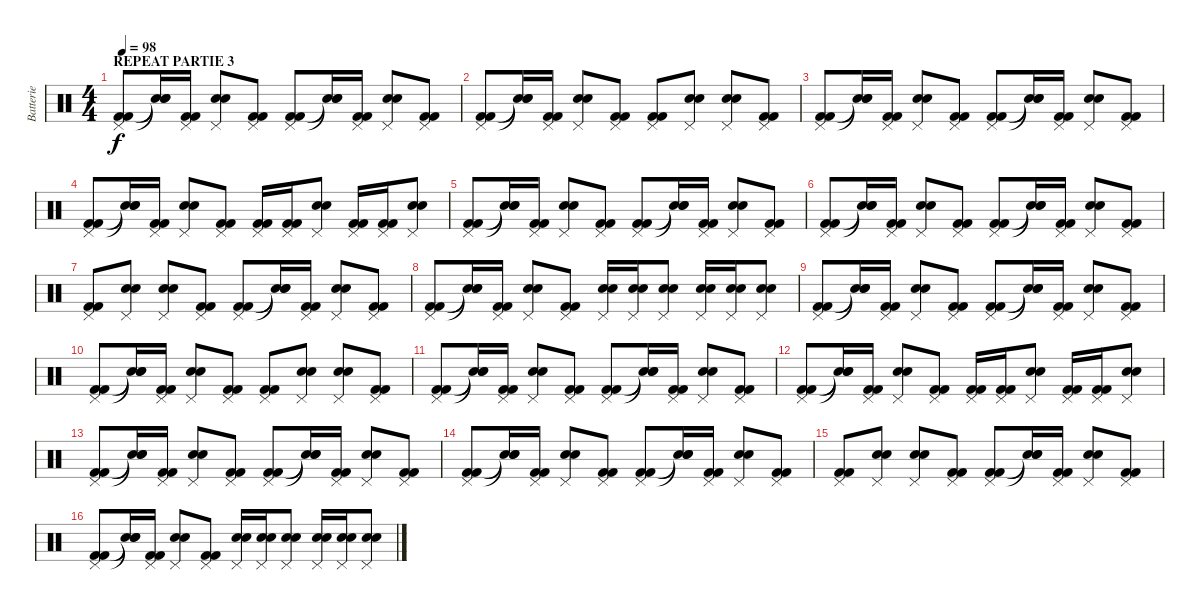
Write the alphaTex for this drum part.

\track ("Batterie" "Batterie") {instrument percussion}
\staff {score}
\articulation defaults
\ts (4 4)
\section ("" "REPEAT PARTIE 3")
\tempo 98
\clef neutral
\ks c
("Pedal Hi-Hat (hit)" "Kick (hit) 2" "Kick (hit) 2").8{dy f} ("Snare (hit)"{t} "Snare (hit)"{t} "Snare (hit)"{t}).16 ("Pedal Hi-Hat (hit)" "Kick (hit) 2" "Kick (hit) 2").16 ("Pedal Hi-Hat (hit)" "Electric Snare (hit)" "Electric Snare (hit)").8 ("Pedal Hi-Hat (hit)" "Kick (hit) 2" "Kick (hit) 2").8 ("Pedal Hi-Hat (hit)" "Kick (hit) 2" "Kick (hit) 2").8 ("Snare (hit)"{t} "Snare (hit)"{t} "Snare (hit)"{t}).16 ("Pedal Hi-Hat (hit)" "Kick (hit) 2" "Kick (hit) 2").16 ("Pedal Hi-Hat (hit)" "Electric Snare (hit)" "Electric Snare (hit)").8 ("Pedal Hi-Hat (hit)" "Kick (hit) 2" "Kick (hit) 2").8 |
("Pedal Hi-Hat (hit)" "Kick (hit) 2" "Kick (hit) 2").8 ("Snare (hit)"{t} "Snare (hit)"{t} "Snare (hit)"{t}).16 ("Pedal Hi-Hat (hit)" "Kick (hit) 2" "Kick (hit) 2").16 ("Pedal Hi-Hat (hit)" "Electric Snare (hit)" "Electric Snare (hit)").8 ("Pedal Hi-Hat (hit)" "Kick (hit) 2" "Kick (hit) 2").8 ("Pedal Hi-Hat (hit)" "Kick (hit) 2" "Kick (hit) 2").8 ("Pedal Hi-Hat (hit)" "Electric Snare (hit)" "Electric Snare (hit)").8 ("Pedal Hi-Hat (hit)" "Electric Snare (hit)" "Electric Snare (hit)").8 ("Pedal Hi-Hat (hit)" "Kick (hit) 2" "Kick (hit) 2").8 |
("Pedal Hi-Hat (hit)" "Kick (hit) 2" "Kick (hit) 2").8 ("Snare (hit)"{t} "Snare (hit)"{t} "Snare (hit)"{t}).16 ("Pedal Hi-Hat (hit)" "Kick (hit) 2" "Kick (hit) 2").16 ("Pedal Hi-Hat (hit)" "Electric Snare (hit)" "Electric Snare (hit)").8 ("Pedal Hi-Hat (hit)" "Kick (hit) 2" "Kick (hit) 2").8 ("Pedal Hi-Hat (hit)" "Kick (hit) 2" "Kick (hit) 2").8 ("Snare (hit)"{t} "Snare (hit)"{t} "Snare (hit)"{t}).16 ("Pedal Hi-Hat (hit)" "Kick (hit) 2" "Kick (hit) 2").16 ("Pedal Hi-Hat (hit)" "Electric Snare (hit)" "Electric Snare (hit)").8 ("Pedal Hi-Hat (hit)" "Kick (hit) 2" "Kick (hit) 2").8 |
("Pedal Hi-Hat (hit)" "Kick (hit) 2" "Kick (hit) 2").8 ("Snare (hit)"{t} "Snare (hit)"{t} "Snare (hit)"{t}).16 ("Pedal Hi-Hat (hit)" "Kick (hit) 2" "Kick (hit) 2").16 ("Pedal Hi-Hat (hit)" "Electric Snare (hit)" "Electric Snare (hit)").8 ("Pedal Hi-Hat (hit)" "Kick (hit) 2" "Kick (hit) 2").8 ("Pedal Hi-Hat (hit)" "Kick (hit) 2" "Kick (hit) 2").16 ("Pedal Hi-Hat (hit)" "Kick (hit) 2" "Kick (hit) 2").16 ("Pedal Hi-Hat (hit)" "Electric Snare (hit)" "Electric Snare (hit)").8 ("Pedal Hi-Hat (hit)" "Kick (hit) 2" "Kick (hit) 2").16 ("Pedal Hi-Hat (hit)" "Kick (hit) 2" "Kick (hit) 2").16 ("Pedal Hi-Hat (hit)" "Electric Snare (hit)" "Electric Snare (hit)").8 |
("Pedal Hi-Hat (hit)" "Kick (hit) 2" "Kick (hit) 2").8 ("Snare (hit)"{t} "Snare (hit)"{t} "Snare (hit)"{t}).16 ("Pedal Hi-Hat (hit)" "Kick (hit) 2" "Kick (hit) 2").16 ("Pedal Hi-Hat (hit)" "Electric Snare (hit)" "Electric Snare (hit)").8 ("Pedal Hi-Hat (hit)" "Kick (hit) 2" "Kick (hit) 2").8 ("Pedal Hi-Hat (hit)" "Kick (hit) 2" "Kick (hit) 2").8 ("Snare (hit)"{t} "Snare (hit)"{t} "Snare (hit)"{t}).16 ("Pedal Hi-Hat (hit)" "Kick (hit) 2" "Kick (hit) 2").16 ("Pedal Hi-Hat (hit)" "Electric Snare (hit)" "Electric Snare (hit)").8 ("Pedal Hi-Hat (hit)" "Kick (hit) 2" "Kick (hit) 2").8 |
("Pedal Hi-Hat (hit)" "Kick (hit) 2" "Kick (hit) 2").8 ("Snare (hit)"{t} "Snare (hit)"{t} "Snare (hit)"{t}).16 ("Pedal Hi-Hat (hit)" "Kick (hit) 2" "Kick (hit) 2").16 ("Pedal Hi-Hat (hit)" "Electric Snare (hit)" "Electric Snare (hit)").8 ("Pedal Hi-Hat (hit)" "Kick (hit) 2" "Kick (hit) 2").8 ("Pedal Hi-Hat (hit)" "Kick (hit) 2" "Kick (hit) 2").8 ("Snare (hit)"{t} "Snare (hit)"{t} "Snare (hit)"{t}).16 ("Pedal Hi-Hat (hit)" "Kick (hit) 2" "Kick (hit) 2").16 ("Pedal Hi-Hat (hit)" "Electric Snare (hit)" "Electric Snare (hit)").8 ("Pedal Hi-Hat (hit)" "Kick (hit) 2" "Kick (hit) 2").8 |
("Pedal Hi-Hat (hit)" "Kick (hit) 2" "Kick (hit) 2").8 ("Pedal Hi-Hat (hit)" "Electric Snare (hit)" "Electric Snare (hit)").8 ("Pedal Hi-Hat (hit)" "Electric Snare (hit)" "Electric Snare (hit)").8 ("Pedal Hi-Hat (hit)" "Kick (hit) 2" "Kick (hit) 2").8 ("Pedal Hi-Hat (hit)" "Kick (hit) 2" "Kick (hit) 2").8 ("Snare (hit)"{t} "Snare (hit)"{t} "Snare (hit)"{t}).16 ("Pedal Hi-Hat (hit)" "Kick (hit) 2" "Kick (hit) 2").16 ("Pedal Hi-Hat (hit)" "Electric Snare (hit)" "Electric Snare (hit)").8 ("Pedal Hi-Hat (hit)" "Kick (hit) 2" "Kick (hit) 2").8 |
("Pedal Hi-Hat (hit)" "Kick (hit) 2" "Kick (hit) 2").8 ("Snare (hit)"{t} "Snare (hit)"{t} "Snare (hit)"{t}).16 ("Pedal Hi-Hat (hit)" "Kick (hit) 2" "Kick (hit) 2").16 ("Pedal Hi-Hat (hit)" "Electric Snare (hit)" "Electric Snare (hit)").8 ("Pedal Hi-Hat (hit)" "Kick (hit) 2" "Kick (hit) 2").8 ("Pedal Hi-Hat (hit)" "Electric Snare (hit)" "Electric Snare (hit)").16 ("Pedal Hi-Hat (hit)" "Electric Snare (hit)" "Electric Snare (hit)").16 ("Pedal Hi-Hat (hit)" "Electric Snare (hit)" "Electric Snare (hit)").8 ("Pedal Hi-Hat (hit)" "Electric Snare (hit)" "Electric Snare (hit)").16 ("Pedal Hi-Hat (hit)" "Electric Snare (hit)" "Electric Snare (hit)").16 ("Pedal Hi-Hat (hit)" "Electric Snare (hit)" "Electric Snare (hit)").8 |
("Pedal Hi-Hat (hit)" "Kick (hit) 2" "Kick (hit) 2").8 ("Snare (hit)"{t} "Snare (hit)"{t} "Snare (hit)"{t}).16 ("Pedal Hi-Hat (hit)" "Kick (hit) 2" "Kick (hit) 2").16 ("Pedal Hi-Hat (hit)" "Electric Snare (hit)" "Electric Snare (hit)").8 ("Pedal Hi-Hat (hit)" "Kick (hit) 2" "Kick (hit) 2").8 ("Pedal Hi-Hat (hit)" "Kick (hit) 2" "Kick (hit) 2").8 ("Snare (hit)"{t} "Snare (hit)"{t} "Snare (hit)"{t}).16 ("Pedal Hi-Hat (hit)" "Kick (hit) 2" "Kick (hit) 2").16 ("Pedal Hi-Hat (hit)" "Electric Snare (hit)" "Electric Snare (hit)").8 ("Pedal Hi-Hat (hit)" "Kick (hit) 2" "Kick (hit) 2").8 |
("Pedal Hi-Hat (hit)" "Kick (hit) 2" "Kick (hit) 2").8 ("Snare (hit)"{t} "Snare (hit)"{t} "Snare (hit)"{t}).16 ("Pedal Hi-Hat (hit)" "Kick (hit) 2" "Kick (hit) 2").16 ("Pedal Hi-Hat (hit)" "Electric Snare (hit)" "Electric Snare (hit)").8 ("Pedal Hi-Hat (hit)" "Kick (hit) 2" "Kick (hit) 2").8 ("Pedal Hi-Hat (hit)" "Kick (hit) 2" "Kick (hit) 2").8 ("Pedal Hi-Hat (hit)" "Electric Snare (hit)" "Electric Snare (hit)").8 ("Pedal Hi-Hat (hit)" "Electric Snare (hit)" "Electric Snare (hit)").8 ("Pedal Hi-Hat (hit)" "Kick (hit) 2" "Kick (hit) 2").8 |
("Pedal Hi-Hat (hit)" "Kick (hit) 2" "Kick (hit) 2").8 ("Snare (hit)"{t} "Snare (hit)"{t} "Snare (hit)"{t}).16 ("Pedal Hi-Hat (hit)" "Kick (hit) 2" "Kick (hit) 2").16 ("Pedal Hi-Hat (hit)" "Electric Snare (hit)" "Electric Snare (hit)").8 ("Pedal Hi-Hat (hit)" "Kick (hit) 2" "Kick (hit) 2").8 ("Pedal Hi-Hat (hit)" "Kick (hit) 2" "Kick (hit) 2").8 ("Snare (hit)"{t} "Snare (hit)"{t} "Snare (hit)"{t}).16 ("Pedal Hi-Hat (hit)" "Kick (hit) 2" "Kick (hit) 2").16 ("Pedal Hi-Hat (hit)" "Electric Snare (hit)" "Electric Snare (hit)").8 ("Pedal Hi-Hat (hit)" "Kick (hit) 2" "Kick (hit) 2").8 |
("Pedal Hi-Hat (hit)" "Kick (hit) 2" "Kick (hit) 2").8 ("Snare (hit)"{t} "Snare (hit)"{t} "Snare (hit)"{t}).16 ("Pedal Hi-Hat (hit)" "Kick (hit) 2" "Kick (hit) 2").16 ("Pedal Hi-Hat (hit)" "Electric Snare (hit)" "Electric Snare (hit)").8 ("Pedal Hi-Hat (hit)" "Kick (hit) 2" "Kick (hit) 2").8 ("Pedal Hi-Hat (hit)" "Kick (hit) 2" "Kick (hit) 2").16 ("Pedal Hi-Hat (hit)" "Kick (hit) 2" "Kick (hit) 2").16 ("Pedal Hi-Hat (hit)" "Electric Snare (hit)" "Electric Snare (hit)").8 ("Pedal Hi-Hat (hit)" "Kick (hit) 2" "Kick (hit) 2").16 ("Pedal Hi-Hat (hit)" "Kick (hit) 2" "Kick (hit) 2").16 ("Pedal Hi-Hat (hit)" "Electric Snare (hit)" "Electric Snare (hit)").8 |
("Pedal Hi-Hat (hit)" "Kick (hit) 2" "Kick (hit) 2").8 ("Snare (hit)"{t} "Snare (hit)"{t} "Snare (hit)"{t}).16 ("Pedal Hi-Hat (hit)" "Kick (hit) 2" "Kick (hit) 2").16 ("Pedal Hi-Hat (hit)" "Electric Snare (hit)" "Electric Snare (hit)").8 ("Pedal Hi-Hat (hit)" "Kick (hit) 2" "Kick (hit) 2").8 ("Pedal Hi-Hat (hit)" "Kick (hit) 2" "Kick (hit) 2").8 ("Snare (hit)"{t} "Snare (hit)"{t} "Snare (hit)"{t}).16 ("Pedal Hi-Hat (hit)" "Kick (hit) 2" "Kick (hit) 2").16 ("Pedal Hi-Hat (hit)" "Electric Snare (hit)" "Electric Snare (hit)").8 ("Pedal Hi-Hat (hit)" "Kick (hit) 2" "Kick (hit) 2").8 |
("Pedal Hi-Hat (hit)" "Kick (hit) 2" "Kick (hit) 2").8 ("Snare (hit)"{t} "Snare (hit)"{t} "Snare (hit)"{t}).16 ("Pedal Hi-Hat (hit)" "Kick (hit) 2" "Kick (hit) 2").16 ("Pedal Hi-Hat (hit)" "Electric Snare (hit)" "Electric Snare (hit)").8 ("Pedal Hi-Hat (hit)" "Kick (hit) 2" "Kick (hit) 2").8 ("Pedal Hi-Hat (hit)" "Kick (hit) 2" "Kick (hit) 2").8 ("Snare (hit)"{t} "Snare (hit)"{t} "Snare (hit)"{t}).16 ("Pedal Hi-Hat (hit)" "Kick (hit) 2" "Kick (hit) 2").16 ("Pedal Hi-Hat (hit)" "Electric Snare (hit)" "Electric Snare (hit)").8 ("Pedal Hi-Hat (hit)" "Kick (hit) 2" "Kick (hit) 2").8 |
("Pedal Hi-Hat (hit)" "Kick (hit) 2" "Kick (hit) 2").8 ("Pedal Hi-Hat (hit)" "Electric Snare (hit)" "Electric Snare (hit)").8 ("Pedal Hi-Hat (hit)" "Electric Snare (hit)" "Electric Snare (hit)").8 ("Pedal Hi-Hat (hit)" "Kick (hit) 2" "Kick (hit) 2").8 ("Pedal Hi-Hat (hit)" "Kick (hit) 2" "Kick (hit) 2").8 ("Snare (hit)"{t} "Snare (hit)"{t} "Snare (hit)"{t}).16 ("Pedal Hi-Hat (hit)" "Kick (hit) 2" "Kick (hit) 2").16 ("Pedal Hi-Hat (hit)" "Electric Snare (hit)" "Electric Snare (hit)").8 ("Pedal Hi-Hat (hit)" "Kick (hit) 2" "Kick (hit) 2").8 |
("Pedal Hi-Hat (hit)" "Kick (hit) 2" "Kick (hit) 2").8 ("Snare (hit)"{t} "Snare (hit)"{t} "Snare (hit)"{t}).16 ("Pedal Hi-Hat (hit)" "Kick (hit) 2" "Kick (hit) 2").16 ("Pedal Hi-Hat (hit)" "Electric Snare (hit)" "Electric Snare (hit)").8 ("Pedal Hi-Hat (hit)" "Kick (hit) 2" "Kick (hit) 2").8 ("Pedal Hi-Hat (hit)" "Electric Snare (hit)" "Electric Snare (hit)").16 ("Pedal Hi-Hat (hit)" "Electric Snare (hit)" "Electric Snare (hit)").16 ("Pedal Hi-Hat (hit)" "Electric Snare (hit)" "Electric Snare (hit)").8 ("Pedal Hi-Hat (hit)" "Electric Snare (hit)" "Electric Snare (hit)").16 ("Pedal Hi-Hat (hit)" "Electric Snare (hit)" "Electric Snare (hit)").16 ("Pedal Hi-Hat (hit)" "Electric Snare (hit)" "Electric Snare (hit)").8
